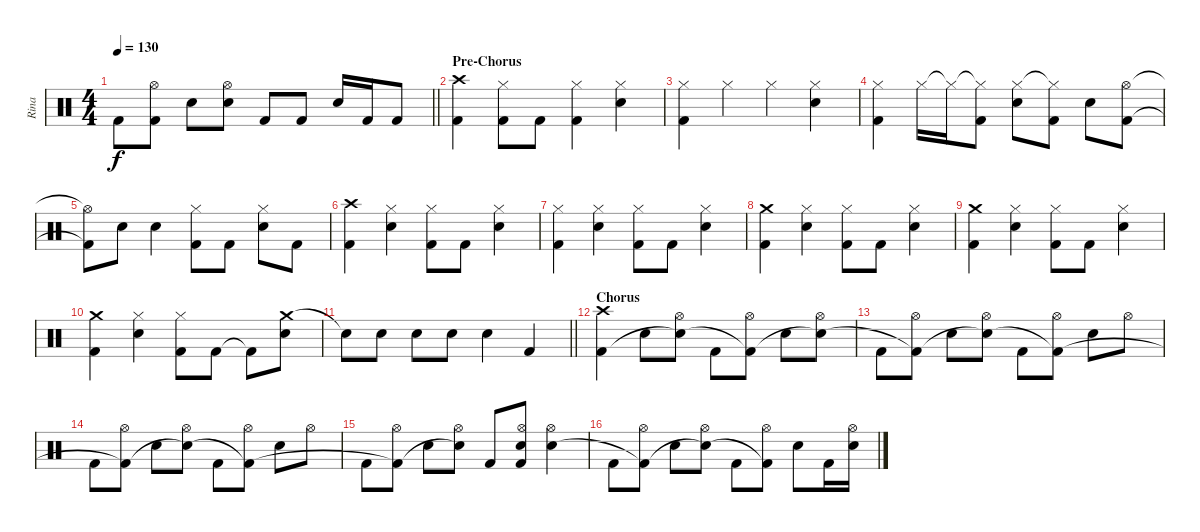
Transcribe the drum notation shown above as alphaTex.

\track ("Rina" "Rina") {instrument percussion}
\staff {score}
\articulation defaults
\ts (4 4)
\tempo 130
\clef neutral
\barLineRight lightlight
\ks c "Kick (hit) 2".8{dy f}
("Hi-Hat (open)" "Kick (hit) 2"{t}).8 "Snare (hit) 2".8 ("Hi-Hat (open)" "Snare (hit) 2").8 "Kick (hit) 2".8 "Kick (hit) 2".8 "Snare (hit) 2".16 "Kick (hit) 2".16 "Kick (hit) 2".8 |
\section ("" "Pre-Chorus")
("Crash high (hit)" "Kick (hit) 2").4 ("Hi-Hat (closed)" "Kick (hit) 2").8 "Kick (hit) 2".8 ("Hi-Hat (closed)" "Kick (hit) 2").4 ("Hi-Hat (closed)" "Snare (hit) 2").4 |
("Hi-Hat (closed)" "Kick (hit) 2").4 "Hi-Hat (closed)".4 "Hi-Hat (closed)".4 ("Hi-Hat (closed)" "Snare (hit) 2").4 |
("Hi-Hat (closed)" "Kick (hit) 2").4 "Hi-Hat (closed)".16 "Hi-Hat (closed)"{t}.16 ("Hi-Hat (closed)"{t} "Kick (hit) 2").8 ("Hi-Hat (closed)" "Snare (hit) 2").8 ("Hi-Hat (closed)"{t} "Kick (hit) 2").8 "Snare (hit) 2".8 ("Hi-Hat (open)" "Kick (hit) 2").8 |
("Hi-Hat (open)"{t} "Kick (hit) 2"{t}).8 "Snare (hit) 2".8 "Snare (hit) 2".4 ("Hi-Hat (closed)" "Kick (hit) 2").8 "Kick (hit) 2".8 ("Hi-Hat (closed)" "Snare (hit) 2").8 "Kick (hit) 2".8 |
("Crash high (hit)" "Kick (hit) 2").4 ("Hi-Hat (closed)" "Snare (hit) 2").4 ("Hi-Hat (closed)" "Kick (hit) 2").8 "Kick (hit) 2".8 ("Hi-Hat (closed)" "Snare (hit) 2").4 |
("Hi-Hat (closed)" "Kick (hit) 2").4 ("Hi-Hat (closed)" "Snare (hit) 2").4 ("Hi-Hat (closed)" "Kick (hit) 2").8 "Kick (hit) 2".8 ("Hi-Hat (closed)" "Snare (hit) 2").4 |
("Crash medium (hit)" "Kick (hit) 2").4 ("Hi-Hat (closed)" "Snare (hit) 2").4 ("Hi-Hat (closed)" "Kick (hit) 2").8 "Kick (hit) 2".8 ("Hi-Hat (closed)" "Snare (hit) 2").4 |
("Crash medium (hit)" "Kick (hit) 2").4 ("Hi-Hat (closed)" "Snare (hit) 2").4 ("Hi-Hat (closed)" "Kick (hit) 2").8 "Kick (hit) 2".8 ("Hi-Hat (closed)" "Snare (hit) 2").4 |
("Crash medium (hit)" "Kick (hit) 2").4 ("Hi-Hat (closed)" "Snare (hit) 2").4 ("Hi-Hat (closed)" "Kick (hit) 2").8 "Kick (hit) 2".8 "Kick (hit) 2"{t}.8 ("Crash medium (hit)" "Snare (hit) 2").8 |
\barLineRight lightlight "Snare (hit) 2"{t}.8 "Snare (hit) 2".8 "Snare (hit) 2".8 "Snare (hit) 2".8 "Snare (hit) 2".4 "Kick (hit) 2".4
|
\section ("" "Chorus")
("Crash high (hit)" "Kick (hit) 2").4 "Snare (hit) 2".8 ("Hi-Hat (open)" "Snare (hit) 2"{t}).8 "Kick (hit) 2".8 ("Hi-Hat (open)" "Kick (hit) 2"{t}).8 "Snare (hit) 2".8 ("Hi-Hat (open)" "Snare (hit) 2"{t}).8 |
"Kick (hit) 2".8 ("Hi-Hat (open)" "Kick (hit) 2"{t}).8 "Snare (hit) 2".8 ("Hi-Hat (open)" "Snare (hit) 2"{t}).8 "Kick (hit) 2".8 ("Hi-Hat (open)" "Kick (hit) 2"{t}).8 "Snare (hit) 2".8 "Hi-Hat (open)".8 |
"Kick (hit) 2".8 ("Hi-Hat (open)" "Kick (hit) 2"{t}).8 "Snare (hit) 2".8 ("Hi-Hat (open)" "Snare (hit) 2"{t}).8 "Kick (hit) 2".8 ("Hi-Hat (open)" "Kick (hit) 2"{t}).8 "Snare (hit) 2".8 "Hi-Hat (open)".8 |
"Kick (hit) 2".8 ("Hi-Hat (open)" "Kick (hit) 2"{t}).8 "Snare (hit) 2".8 ("Hi-Hat (open)" "Snare (hit) 2"{t}).8 "Kick (hit) 2".8 ("Hi-Hat (open)" "Snare (hit) 2" "Kick (hit) 2").8 ("Hi-Hat (open)" "Snare (hit) 2").4 |
"Kick (hit) 2".8 ("Hi-Hat (open)" "Kick (hit) 2"{t}).8 "Snare (hit) 2".8 ("Hi-Hat (open)" "Snare (hit) 2"{t}).8 "Kick (hit) 2".8 ("Hi-Hat (open)" "Kick (hit) 2"{t}).8 "Snare (hit) 2".8 "Kick (hit) 2".16 ("Hi-Hat (open)" "Snare (hit) 2").16
